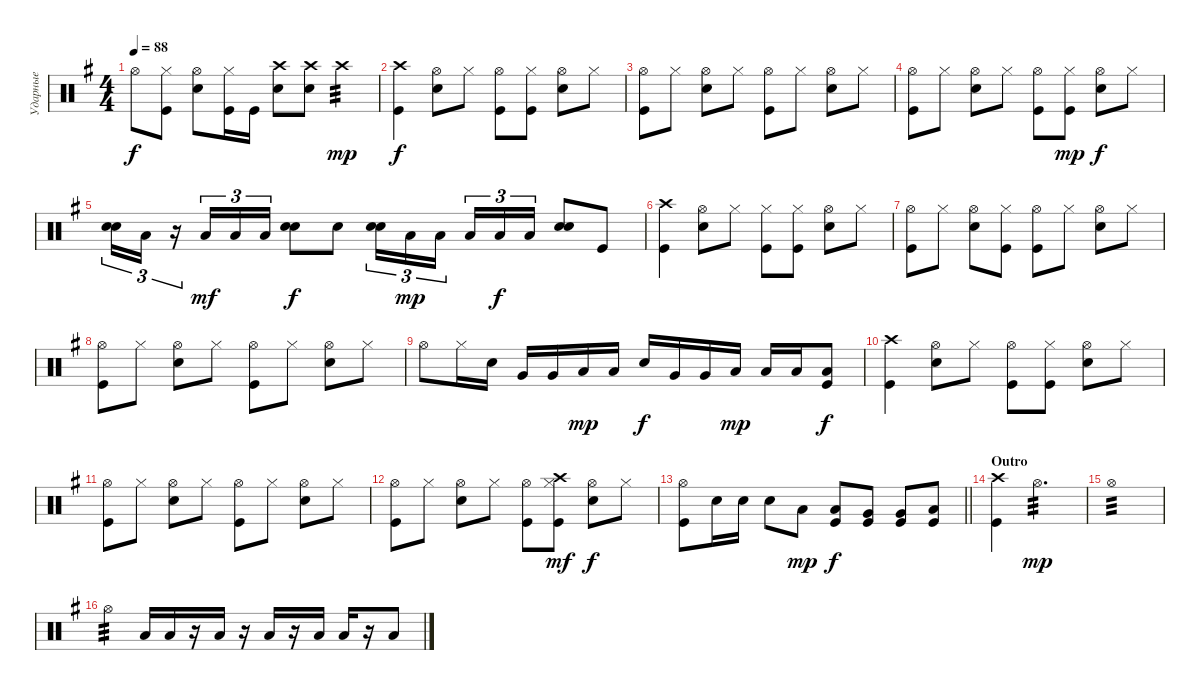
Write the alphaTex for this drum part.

\track ("Ударные" "Ударные") {instrument percussion}
\staff {score}
\articulation defaults
\ts (4 4)
\tempo 88
\clef neutral
\ks eminor "Hi-Hat (open)".8{dy f}
("Hi-Hat (closed)" "Kick (hit)").8 ("Snare (hit) 2" "Hi-Hat (open)").8 ("Kick (hit)" "Hi-Hat (closed)").16 "Kick (hit)".16 ("Crash high (hit)" "Snare (hit) 2").8 ("Snare (hit) 2" "Crash high (hit)").8 "Crash high (hit)".4{tp 3 dy mp} |
("Kick (hit)" "Crash high (hit)").4{dy f} ("Snare (hit) 2" "Hi-Hat (open)").8 "Hi-Hat (closed)".8 ("Hi-Hat (open)" "Kick (hit)").8 ("Hi-Hat (closed)" "Kick (hit)").8 ("Snare (hit) 2" "Hi-Hat (open)").8 "Hi-Hat (closed)".8 |
("Kick (hit)" "Hi-Hat (open)").8 "Hi-Hat (closed)".8 ("Hi-Hat (open)" "Snare (hit) 2").8 "Hi-Hat (closed)".8 ("Kick (hit)" "Hi-Hat (open)").8 "Hi-Hat (closed)".8 ("Hi-Hat (open)" "Snare (hit) 2").8 "Hi-Hat (closed)".8 |
("Kick (hit)" "Hi-Hat (open)").8 "Hi-Hat (closed)".8 ("Hi-Hat (open)" "Snare (hit) 2").8 "Hi-Hat (closed)".8 ("Kick (hit)" "Hi-Hat (open)").8 ("Hi-Hat (closed)" "Kick (hit)").8{dy mp} ("Hi-Hat (open)" "Snare (hit) 2").8{dy f} "Hi-Hat (closed)".8 |
("Snare (hit) 2" "Snare (hit) 2").16{tu (3 2) bd 240} "Low Floor Tom (hit)".16{tu (3 2)} r.16{tu (3 2)} "Low Floor Tom (hit)".16{tu (3 2) dy mf} "Low Floor Tom (hit)".16{tu (3 2)} "Low Floor Tom (hit)".16{tu (3 2)} ("Snare (hit) 2" "Snare (hit) 2").8{bd 240 dy f} "Snare (hit) 2".8 ("Snare (hit) 2" "Snare (hit) 2").16{tu (3 2) bd 240} "Low Floor Tom (hit)".16{tu (3 2) dy mp} "Low Floor Tom (hit)".16{tu (3 2) beam splitsecondary} "Low Floor Tom (hit)".16{tu (3 2)} "Low Floor Tom (hit)".16{tu (3 2) dy f} "Low Floor Tom (hit)".16{tu (3 2)} ("Snare (hit) 2" "Snare (hit) 2").8{bd 240} "Kick (hit)".8 |
("Kick (hit)" "Crash high (hit)").4 ("Snare (hit) 2" "Hi-Hat (open)").8 "Hi-Hat (closed)".8 ("Hi-Hat (closed)" "Kick (hit)").8 ("Hi-Hat (closed)" "Kick (hit)").8 ("Snare (hit) 2" "Hi-Hat (open)").8 "Hi-Hat (closed)".8 |
("Kick (hit)" "Hi-Hat (open)").8 "Hi-Hat (closed)".8 ("Hi-Hat (open)" "Snare (hit) 2").8 ("Hi-Hat (closed)" "Kick (hit)").8 ("Kick (hit)" "Hi-Hat (open)").8 "Hi-Hat (closed)".8 ("Hi-Hat (open)" "Snare (hit) 2").8 "Hi-Hat (closed)".8 |
("Kick (hit)" "Hi-Hat (open)").8 "Hi-Hat (closed)".8 ("Hi-Hat (open)" "Snare (hit) 2").8 "Hi-Hat (closed)".8 ("Kick (hit)" "Hi-Hat (open)").8 "Hi-Hat (closed)".8 ("Hi-Hat (open)" "Snare (hit) 2").8 "Hi-Hat (closed)".8 |
"Hi-Hat (open)".8 "Hi-Hat (closed)".16 "Snare (hit) 2".16 "Very Low Tom (hit)".16 "Very Low Tom (hit)".16 "Low Floor Tom (hit)".16{dy mp} "Low Floor Tom (hit)".16 "Snare (hit) 2".16{dy f} "Very Low Tom (hit)".16 "Very Low Tom (hit)".16 "Low Floor Tom (hit)".16{dy mp} "Low Floor Tom (hit)".16 "Low Floor Tom (hit)".16 ("Low Floor Tom (hit)" "Kick (hit)").8{dy f} |
("Kick (hit)" "Crash high (hit)").4 ("Snare (hit) 2" "Hi-Hat (open)").8 "Hi-Hat (closed)".8 ("Hi-Hat (open)" "Kick (hit)").8 ("Hi-Hat (closed)" "Kick (hit)").8 ("Snare (hit) 2" "Hi-Hat (open)").8 "Hi-Hat (closed)".8 |
("Kick (hit)" "Hi-Hat (open)").8 "Hi-Hat (closed)".8 ("Hi-Hat (open)" "Snare (hit) 2").8 "Hi-Hat (closed)".8 ("Kick (hit)" "Hi-Hat (open)").8 "Hi-Hat (closed)".8 ("Hi-Hat (open)" "Snare (hit) 2").8 "Hi-Hat (closed)".8 |
("Kick (hit)" "Hi-Hat (open)").8 "Hi-Hat (closed)".8 ("Hi-Hat (open)" "Snare (hit) 2").8 "Hi-Hat (closed)".8 ("Kick (hit)" "Hi-Hat (open)").8 ("Crash high (hit)" "Kick (hit)" "Hi-Hat (closed)").8{dy mf} ("Hi-Hat (open)" "Snare (hit) 2").8{dy f} "Hi-Hat (closed)".8 |
\barLineRight lightlight
("Kick (hit)" "Hi-Hat (open)").8 "Snare (hit) 2".16 "Snare (hit) 2".16 "Snare (hit) 2".8 "Low Floor Tom (hit)".8{dy mp} ("Low Tom (hit)" "Kick (hit)").8{dy f} ("Very Low Tom (hit)" "Kick (hit)").8 ("Very Low Tom (hit)" "Kick (hit)").8 ("Low Floor Tom (hit)" "Kick (hit)").8 |
\section ("" "Outro")
("Kick (hit)" "Crash high (hit)").4 "Hi-Hat (open)".2{d tp 3 dy mp} |
"Hi-Hat (open)".1{tp 3} |
"Hi-Hat (open)".4{tp 3} "Low Tom (hit)".16 "Low Tom (hit)".16 r.16 "Low Tom (hit)".16 r.16 "Low Tom (hit)".16 r.16 "Low Tom (hit)".16 "Low Tom (hit)".16 r.16 "Low Tom (hit)".8
